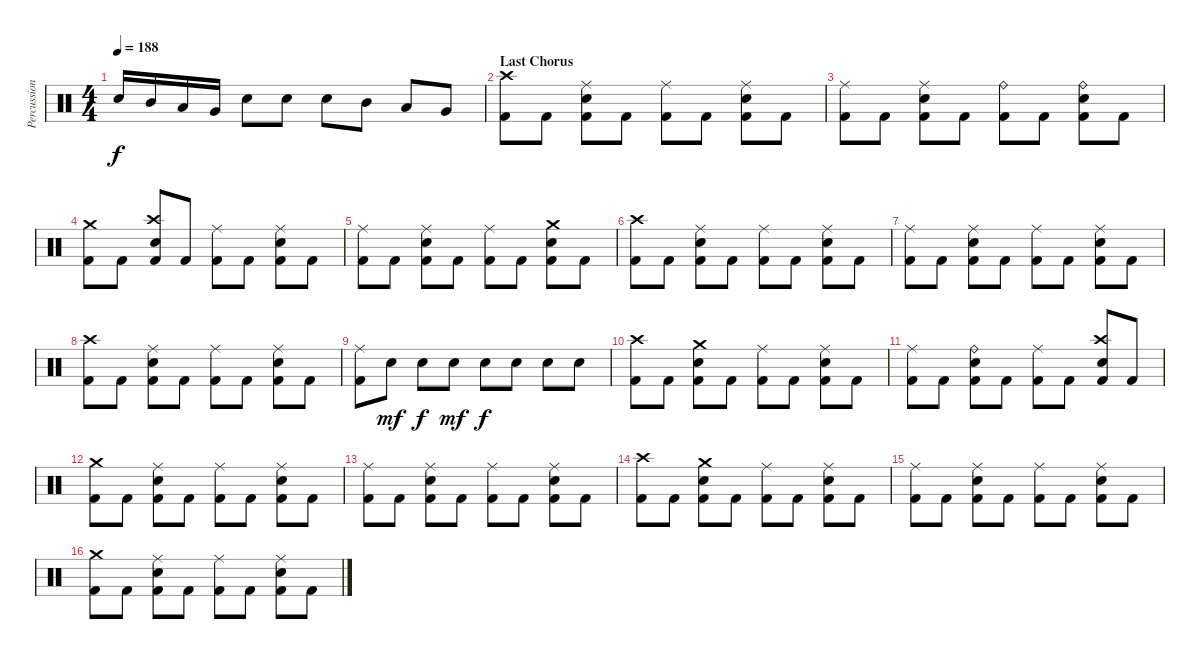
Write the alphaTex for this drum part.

\track ("Percussions" "Percussion") {instrument percussion}
\staff {score}
\articulation defaults
\ts (4 4)
\tempo 188
\clef neutral
\ks c "Snare (hit) 2".16{dy f} "Mid Tom (hit)".16 "Low Tom (hit)".16 "Very Low Tom (hit)".16 "Snare (hit) 2".8 "Snare (hit) 2".8 "Snare (hit) 2".8 "Mid Tom (hit)".8 "Low Tom (hit)".8 "Very Low Tom (hit)".8
|
\section ("" "Last Chorus")
("Crash high (hit)" "Kick (hit) 2").8 "Kick (hit) 2".8 ("Ride (middle)" "Snare (hit) 2" "Kick (hit) 2").8 "Kick (hit) 2".8 ("Ride (middle)" "Kick (hit) 2").8 "Kick (hit) 2".8 ("Ride (middle)" "Snare (hit) 2" "Kick (hit) 2").8 "Kick (hit) 2".8 |
("Ride (middle)" "Kick (hit) 2").8 "Kick (hit) 2".8 ("Ride (middle)" "Snare (hit) 2" "Kick (hit) 2").8 "Kick (hit) 2".8 ("Ride (bell)" "Kick (hit) 2").8 "Kick (hit) 2".8 ("Ride (bell)" "Snare (hit) 2" "Kick (hit) 2").8 "Kick (hit) 2".8 |
("Crash medium (hit)" "Kick (hit) 2").8 "Kick (hit) 2".8 ("Crash high (hit)" "Snare (hit) 2" "Kick (hit) 2").8 "Kick (hit) 2".8 ("Ride (middle)" "Kick (hit) 2").8 "Kick (hit) 2".8 ("Ride (middle)" "Snare (hit) 2" "Kick (hit) 2").8 "Kick (hit) 2".8 |
("Ride (middle)" "Kick (hit) 2").8 "Kick (hit) 2".8 ("Ride (middle)" "Snare (hit) 2" "Kick (hit) 2").8 "Kick (hit) 2".8 ("Ride (middle)" "Kick (hit) 2").8 "Kick (hit) 2".8 ("Crash medium (hit)" "Snare (hit) 2" "Kick (hit) 2").8 "Kick (hit) 2".8 |
("Crash high (hit)" "Kick (hit) 2").8 "Kick (hit) 2".8 ("Ride (middle)" "Snare (hit) 2" "Kick (hit) 2").8 "Kick (hit) 2".8 ("Ride (middle)" "Kick (hit) 2").8 "Kick (hit) 2".8 ("Ride (middle)" "Snare (hit) 2" "Kick (hit) 2").8 "Kick (hit) 2".8 |
("Ride (middle)" "Kick (hit) 2").8 "Kick (hit) 2".8 ("Ride (middle)" "Snare (hit) 2" "Kick (hit) 2").8 "Kick (hit) 2".8 ("Ride (middle)" "Kick (hit) 2").8 "Kick (hit) 2".8 ("Ride (middle)" "Snare (hit) 2" "Kick (hit) 2").8 "Kick (hit) 2".8 |
("Crash high (hit)" "Kick (hit) 2").8 "Kick (hit) 2".8 ("Ride (middle)" "Snare (hit) 2" "Kick (hit) 2").8 "Kick (hit) 2".8 ("Ride (middle)" "Kick (hit) 2").8 "Kick (hit) 2".8 ("Ride (middle)" "Snare (hit) 2" "Kick (hit) 2").8 "Kick (hit) 2".8 |
("Ride (middle)" "Kick (hit) 2").8 "Snare (hit) 2".8{dy mf} "Snare (hit) 2".8{dy f} "Snare (hit) 2".8{dy mf} "Snare (hit) 2".8{dy f} "Snare (hit) 2".8 "Snare (hit) 2".8 "Snare (hit) 2".8 |
("Crash high (hit)" "Kick (hit) 2").8 "Kick (hit) 2".8 ("Crash medium (hit)" "Snare (hit) 2" "Kick (hit) 2").8 "Kick (hit) 2".8 ("Ride (middle)" "Kick (hit) 2").8 "Kick (hit) 2".8 ("Ride (middle)" "Snare (hit) 2" "Kick (hit) 2").8 "Kick (hit) 2".8 |
("Ride (middle)" "Kick (hit) 2").8 "Kick (hit) 2".8 ("Ride (bell)" "Snare (hit) 2" "Kick (hit) 2").8 "Kick (hit) 2".8 ("Ride (middle)" "Kick (hit) 2").8 "Kick (hit) 2".8 ("Crash high (hit)" "Snare (hit) 2" "Kick (hit) 2").8 "Kick (hit) 2".8 |
("Crash medium (hit)" "Kick (hit) 2").8 "Kick (hit) 2".8 ("Ride (middle)" "Snare (hit) 2" "Kick (hit) 2").8 "Kick (hit) 2".8 ("Ride (middle)" "Kick (hit) 2").8 "Kick (hit) 2".8 ("Ride (middle)" "Snare (hit) 2" "Kick (hit) 2").8 "Kick (hit) 2".8 |
("Ride (middle)" "Kick (hit) 2").8 "Kick (hit) 2".8 ("Ride (middle)" "Snare (hit) 2" "Kick (hit) 2").8 "Kick (hit) 2".8 ("Ride (middle)" "Kick (hit) 2").8 "Kick (hit) 2".8 ("Ride (middle)" "Snare (hit) 2" "Kick (hit) 2").8 "Kick (hit) 2".8 |
("Crash high (hit)" "Kick (hit) 2").8 "Kick (hit) 2".8 ("Crash medium (hit)" "Snare (hit) 2" "Kick (hit) 2").8 "Kick (hit) 2".8 ("Ride (middle)" "Kick (hit) 2").8 "Kick (hit) 2".8 ("Ride (middle)" "Snare (hit) 2" "Kick (hit) 2").8 "Kick (hit) 2".8 |
("Ride (middle)" "Kick (hit) 2").8 "Kick (hit) 2".8 ("Ride (middle)" "Snare (hit) 2" "Kick (hit) 2").8 "Kick (hit) 2".8 ("Ride (middle)" "Kick (hit) 2").8 "Kick (hit) 2".8 ("Ride (middle)" "Snare (hit) 2" "Kick (hit) 2").8 "Kick (hit) 2".8 |
("Crash medium (hit)" "Kick (hit) 2").8 "Kick (hit) 2".8 ("Ride (middle)" "Snare (hit) 2" "Kick (hit) 2").8 "Kick (hit) 2".8 ("Ride (middle)" "Kick (hit) 2").8 "Kick (hit) 2".8 ("Ride (middle)" "Snare (hit) 2" "Kick (hit) 2").8 "Kick (hit) 2".8
